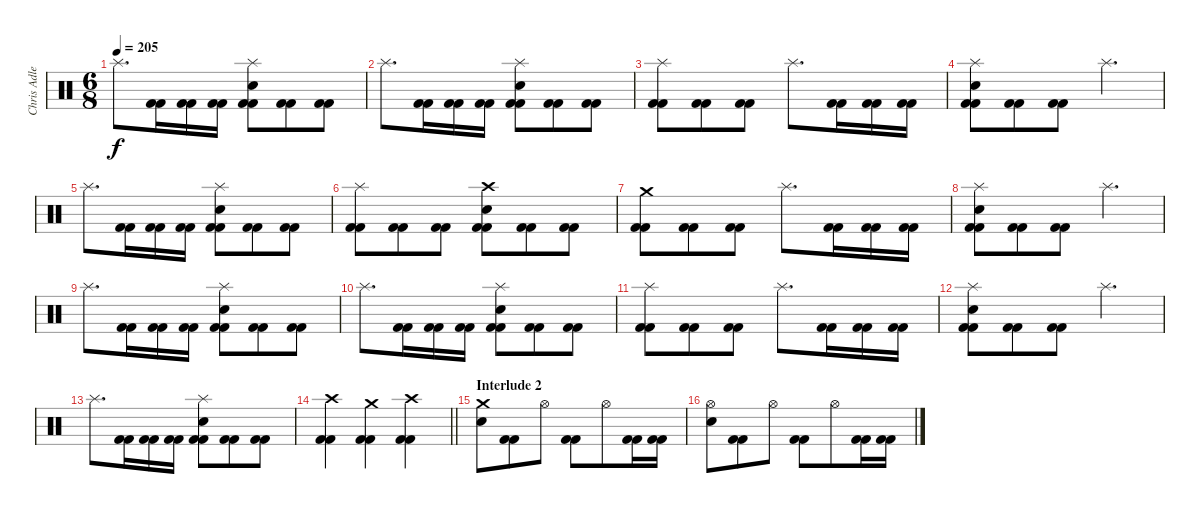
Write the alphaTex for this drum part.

\track ("Chris Adler" "Chris Adle") {instrument percussion}
\staff {score}
\articulation defaults
\ts (6 8)
\tempo 205
\clef neutral
\ks c "Splash (hit)".8{d dy f}
("Kick (hit) 2" "Kick (hit) 2").16 ("Kick (hit) 2" "Kick (hit) 2").16 ("Kick (hit) 2" "Kick (hit) 2").16 ("Splash (hit)" "Electric Snare (hit)" "Kick (hit) 2" "Kick (hit) 2").8 ("Kick (hit) 2" "Kick (hit) 2").8 ("Kick (hit) 2" "Kick (hit) 2").8 |
"Splash (hit)".8{d} ("Kick (hit) 2" "Kick (hit) 2").16 ("Kick (hit) 2" "Kick (hit) 2").16 ("Kick (hit) 2" "Kick (hit) 2").16 ("Splash (hit)" "Electric Snare (hit)" "Kick (hit) 2" "Kick (hit) 2").8 ("Kick (hit) 2" "Kick (hit) 2").8 ("Kick (hit) 2" "Kick (hit) 2").8 |
("Splash (hit)" "Kick (hit) 2" "Kick (hit) 2").8 ("Kick (hit) 2" "Kick (hit) 2").8 ("Kick (hit) 2" "Kick (hit) 2").8 "Splash (hit)".8{d} ("Kick (hit) 2" "Kick (hit) 2").16 ("Kick (hit) 2" "Kick (hit) 2").16 ("Kick (hit) 2" "Kick (hit) 2").16 |
("Splash (hit)" "Electric Snare (hit)" "Kick (hit) 2" "Kick (hit) 2").8 ("Kick (hit) 2" "Kick (hit) 2").8 ("Kick (hit) 2" "Kick (hit) 2").8 "Splash (hit)".4{d} |
"Splash (hit)".8{d} ("Kick (hit) 2" "Kick (hit) 2").16 ("Kick (hit) 2" "Kick (hit) 2").16 ("Kick (hit) 2" "Kick (hit) 2").16 ("Splash (hit)" "Electric Snare (hit)" "Kick (hit) 2" "Kick (hit) 2").8 ("Kick (hit) 2" "Kick (hit) 2").8 ("Kick (hit) 2" "Kick (hit) 2").8 |
("Splash (hit)" "Kick (hit) 2" "Kick (hit) 2").8 ("Kick (hit) 2" "Kick (hit) 2").8 ("Kick (hit) 2" "Kick (hit) 2").8 ("Crash high (hit)" "Electric Snare (hit)" "Kick (hit) 2" "Kick (hit) 2").8 ("Kick (hit) 2" "Kick (hit) 2").8 ("Kick (hit) 2" "Kick (hit) 2").8 |
("Crash medium (hit)" "Kick (hit) 2" "Kick (hit) 2").8 ("Kick (hit) 2" "Kick (hit) 2").8 ("Kick (hit) 2" "Kick (hit) 2").8 "Splash (hit)".8{d} ("Kick (hit) 2" "Kick (hit) 2").16 ("Kick (hit) 2" "Kick (hit) 2").16 ("Kick (hit) 2" "Kick (hit) 2").16 |
("Splash (hit)" "Electric Snare (hit)" "Kick (hit) 2" "Kick (hit) 2").8 ("Kick (hit) 2" "Kick (hit) 2").8 ("Kick (hit) 2" "Kick (hit) 2").8 "Splash (hit)".4{d} |
"Splash (hit)".8{d} ("Kick (hit) 2" "Kick (hit) 2").16 ("Kick (hit) 2" "Kick (hit) 2").16 ("Kick (hit) 2" "Kick (hit) 2").16 ("Splash (hit)" "Electric Snare (hit)" "Kick (hit) 2" "Kick (hit) 2").8 ("Kick (hit) 2" "Kick (hit) 2").8 ("Kick (hit) 2" "Kick (hit) 2").8 |
"Splash (hit)".8{d} ("Kick (hit) 2" "Kick (hit) 2").16 ("Kick (hit) 2" "Kick (hit) 2").16 ("Kick (hit) 2" "Kick (hit) 2").16 ("Splash (hit)" "Electric Snare (hit)" "Kick (hit) 2" "Kick (hit) 2").8 ("Kick (hit) 2" "Kick (hit) 2").8 ("Kick (hit) 2" "Kick (hit) 2").8 |
("Splash (hit)" "Kick (hit) 2" "Kick (hit) 2").8 ("Kick (hit) 2" "Kick (hit) 2").8 ("Kick (hit) 2" "Kick (hit) 2").8 "Splash (hit)".8{d} ("Kick (hit) 2" "Kick (hit) 2").16 ("Kick (hit) 2" "Kick (hit) 2").16 ("Kick (hit) 2" "Kick (hit) 2").16 |
("Splash (hit)" "Electric Snare (hit)" "Kick (hit) 2" "Kick (hit) 2").8 ("Kick (hit) 2" "Kick (hit) 2").8 ("Kick (hit) 2" "Kick (hit) 2").8 "Splash (hit)".4{d} |
"Splash (hit)".8{d} ("Kick (hit) 2" "Kick (hit) 2").16 ("Kick (hit) 2" "Kick (hit) 2").16 ("Kick (hit) 2" "Kick (hit) 2").16 ("Splash (hit)" "Electric Snare (hit)" "Kick (hit) 2" "Kick (hit) 2").8 ("Kick (hit) 2" "Kick (hit) 2").8 ("Kick (hit) 2" "Kick (hit) 2").8 |
\barLineRight lightlight
("Crash high (hit)" "Kick (hit) 2" "Kick (hit) 2").4 ("Crash medium (hit)" "Kick (hit) 2" "Kick (hit) 2").4 ("Crash high (hit)" "Kick (hit) 2" "Kick (hit) 2").4 |
\section ("" "Interlude 2")
("Crash medium (hit)" "Electric Snare (hit)").8 ("Kick (hit) 2" "Kick (hit) 2").8 "Hi-Hat (open)".8 ("Kick (hit) 2" "Kick (hit) 2").8 "Hi-Hat (open)".8 ("Kick (hit) 2" "Kick (hit) 2").16 ("Kick (hit) 2" "Kick (hit) 2").16 |
("Hi-Hat (open)" "Electric Snare (hit)").8 ("Kick (hit) 2" "Kick (hit) 2").8 "Hi-Hat (open)".8 ("Kick (hit) 2" "Kick (hit) 2").8 "Hi-Hat (open)".8 ("Kick (hit) 2" "Kick (hit) 2").16 ("Kick (hit) 2" "Kick (hit) 2").16
